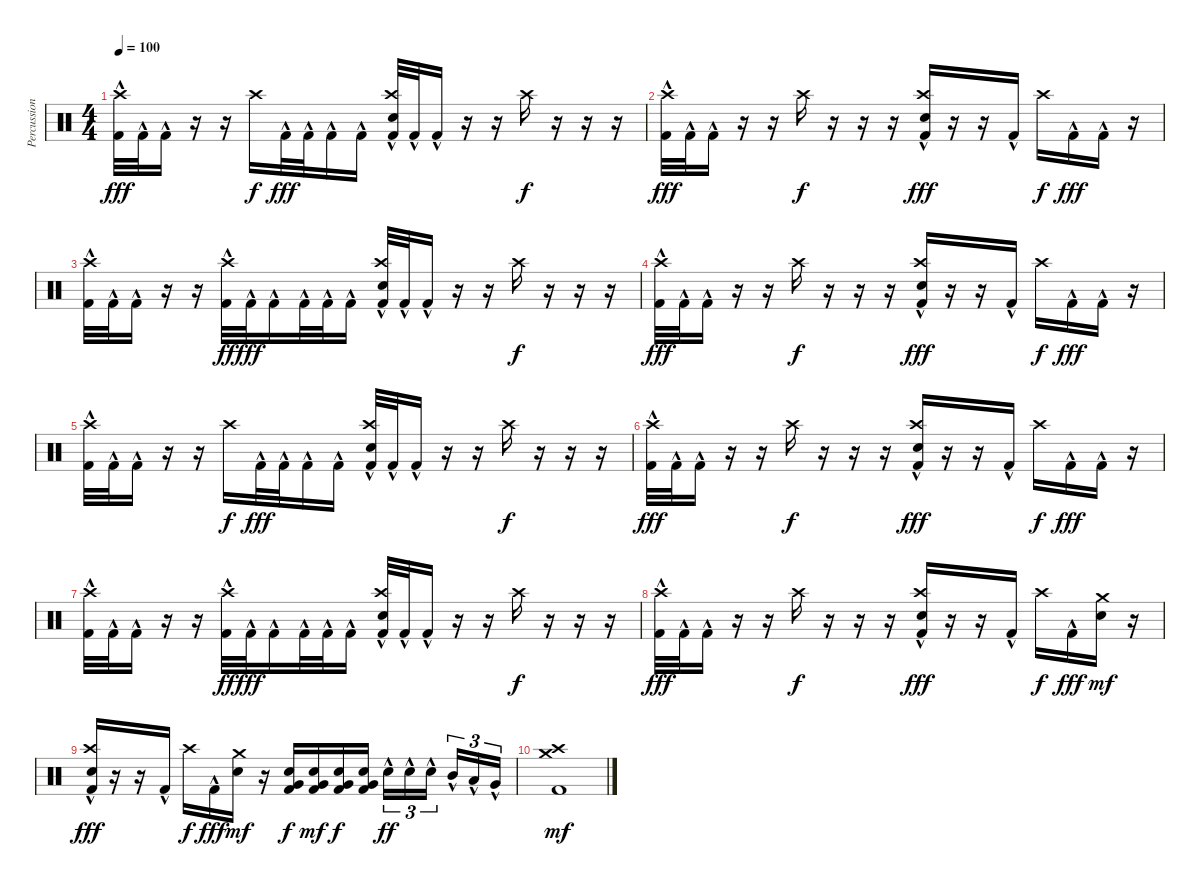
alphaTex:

\track ("Percussion" "Percussion") {instrument percussion}
\staff {score}
\articulation defaults
\ts (4 4)
\tempo 100
\clef neutral
\ks c
("Kick (hit) 2"{hac} "Crash high (hit)").32{dy fff} "Kick (hit) 2"{hac}.32 "Kick (hit) 2"{hac}.16 r.16 r.16 "Crash high (hit)".16{dy f} "Kick (hit) 2"{hac}.32{dy fff} "Kick (hit) 2"{hac}.32 "Kick (hit) 2"{hac}.16 "Kick (hit) 2"{hac}.16 ("Electric Snare (hit)" "Kick (hit) 2"{hac} "Crash high (hit)").32 "Kick (hit) 2"{hac}.32 "Kick (hit) 2"{hac}.16 r.16 r.16 "Crash high (hit)".16{dy f} r.16 r.16 r.16 |
("Kick (hit) 2"{hac} "Crash high (hit)").32{dy fff} "Kick (hit) 2"{hac}.32 "Kick (hit) 2"{hac}.16 r.16 r.16 "Crash high (hit)".16{dy f} r.16 r.16 r.16 ("Kick (hit) 2"{hac} "Electric Snare (hit)"{hac} "Crash high (hit)").16{dy fff} r.16 r.16 "Kick (hit) 2"{hac}.16 "Crash high (hit)".16{dy f} "Kick (hit) 2"{hac}.16{dy fff} "Kick (hit) 2"{hac}.16 r.16 |
("Kick (hit) 2"{hac} "Crash high (hit)").32 "Kick (hit) 2"{hac}.32 "Kick (hit) 2"{hac}.16 r.16 r.16 ("Kick (hit) 2"{hac} "Crash high (hit)").32{dy ff} "Kick (hit) 2"{hac}.32{dy fff} "Kick (hit) 2"{hac}.16 "Kick (hit) 2"{hac}.32 "Kick (hit) 2"{hac}.32 "Kick (hit) 2"{hac}.16 ("Electric Snare (hit)" "Kick (hit) 2"{hac} "Crash high (hit)").32 "Kick (hit) 2"{hac}.32 "Kick (hit) 2"{hac}.16 r.16 r.16 "Crash high (hit)".16{dy f} r.16 r.16 r.16 |
("Kick (hit) 2"{hac} "Crash high (hit)").32{dy fff} "Kick (hit) 2"{hac}.32 "Kick (hit) 2"{hac}.16 r.16 r.16 "Crash high (hit)".16{dy f} r.16 r.16 r.16 ("Kick (hit) 2"{hac} "Electric Snare (hit)"{hac} "Crash high (hit)").16{dy fff} r.16 r.16 "Kick (hit) 2"{hac}.16 "Crash high (hit)".16{dy f} "Kick (hit) 2"{hac}.16{dy fff} "Kick (hit) 2"{hac}.16 r.16 |
("Kick (hit) 2"{hac} "Crash high (hit)").32 "Kick (hit) 2"{hac}.32 "Kick (hit) 2"{hac}.16 r.16 r.16 "Crash high (hit)".16{dy f} "Kick (hit) 2"{hac}.32{dy fff} "Kick (hit) 2"{hac}.32 "Kick (hit) 2"{hac}.16 "Kick (hit) 2"{hac}.16 ("Electric Snare (hit)" "Kick (hit) 2"{hac} "Crash high (hit)").32 "Kick (hit) 2"{hac}.32 "Kick (hit) 2"{hac}.16 r.16 r.16 "Crash high (hit)".16{dy f} r.16 r.16 r.16 |
("Kick (hit) 2"{hac} "Crash high (hit)").32{dy fff} "Kick (hit) 2"{hac}.32 "Kick (hit) 2"{hac}.16 r.16 r.16 "Crash high (hit)".16{dy f} r.16 r.16 r.16 ("Kick (hit) 2"{hac} "Electric Snare (hit)"{hac} "Crash high (hit)").16{dy fff} r.16 r.16 "Kick (hit) 2"{hac}.16 "Crash high (hit)".16{dy f} "Kick (hit) 2"{hac}.16{dy fff} "Kick (hit) 2"{hac}.16 r.16 |
("Kick (hit) 2"{hac} "Crash high (hit)").32 "Kick (hit) 2"{hac}.32 "Kick (hit) 2"{hac}.16 r.16 r.16 ("Kick (hit) 2"{hac} "Crash high (hit)").32{dy ff} "Kick (hit) 2"{hac}.32{dy fff} "Kick (hit) 2"{hac}.16 "Kick (hit) 2"{hac}.32 "Kick (hit) 2"{hac}.32 "Kick (hit) 2"{hac}.16 ("Electric Snare (hit)" "Kick (hit) 2"{hac} "Crash high (hit)").32 "Kick (hit) 2"{hac}.32 "Kick (hit) 2"{hac}.16 r.16 r.16 "Crash high (hit)".16{dy f} r.16 r.16 r.16 |
("Kick (hit) 2"{hac} "Crash high (hit)").32{dy fff} "Kick (hit) 2"{hac}.32 "Kick (hit) 2"{hac}.16 r.16 r.16 "Crash high (hit)".16{dy f} r.16 r.16 r.16 ("Kick (hit) 2"{hac} "Electric Snare (hit)"{hac} "Crash high (hit)").16{dy fff} r.16 r.16 "Kick (hit) 2"{hac}.16 "Crash high (hit)".16{dy f} "Kick (hit) 2"{hac}.16{dy fff} ("Electric Snare (hit)" "Crash medium (hit)").16{dy mf} r.16 |
("Kick (hit) 2"{hac} "Electric Snare (hit)"{hac} "Crash high (hit)").16{dy fff} r.16 r.16 "Kick (hit) 2"{hac}.16 "Crash high (hit)".16{dy f} "Kick (hit) 2"{hac}.16{dy fff} ("Electric Snare (hit)" "Crash medium (hit)").16{dy mf} r.16 ("Kick (hit) 2" "Electric Snare (hit)" "Very Low Tom (hit)").16{dy f} ("Kick (hit) 2" "Electric Snare (hit)" "Very Low Tom (hit)").16{dy mf} ("Kick (hit) 2" "Electric Snare (hit)" "Very Low Tom (hit)").16{dy f} ("Kick (hit) 2" "Electric Snare (hit)" "Very Low Tom (hit)").16 "Electric Snare (hit)"{hac}.16{tu (3 2) dy ff} "Electric Snare (hit)"{hac}.16{tu (3 2)} "Electric Snare (hit)"{hac}.16{tu (3 2) beam splitsecondary} "Mid Tom (hit)"{hac}.16{tu (3 2)} "Low Tom (hit)"{hac}.16{tu (3 2)} "Very Low Tom (hit)"{hac}.16{tu (3 2)} |
("Kick (hit) 2" "Crash medium (hit)" "Crash high (hit)").1{dy mf}
